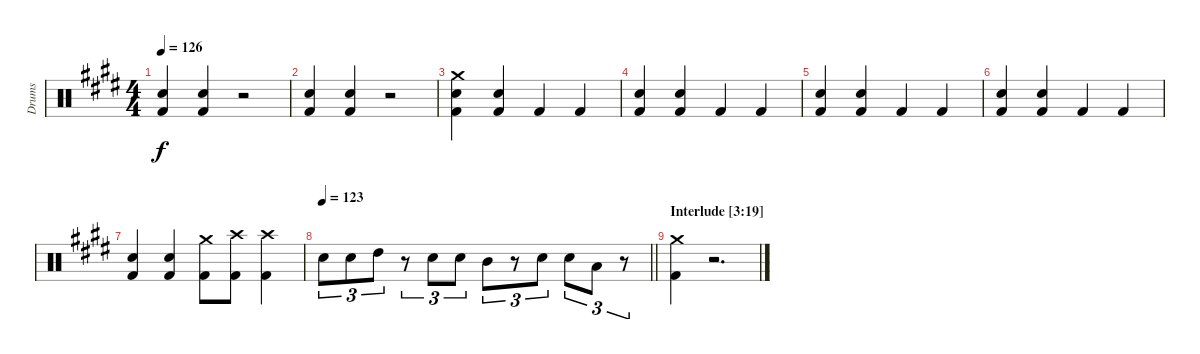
\track ("Drums" "Drums") {instrument percussion}
\staff {score}
\articulation defaults
\ts (4 4)
\tempo 126
\clef neutral
\ks c#minor
("Snare (hit) 2" "Kick (hit) 2").4{dy f} ("Snare (hit) 2" "Kick (hit) 2").4 r.2 |
("Snare (hit) 2" "Kick (hit) 2").4 ("Snare (hit) 2" "Kick (hit) 2").4 r.2 |
("Crash medium (hit)" "Snare (hit) 2" "Kick (hit) 2").4 ("Snare (hit) 2" "Kick (hit) 2").4 "Kick (hit) 2".4 "Kick (hit) 2".4 |
("Snare (hit) 2" "Kick (hit) 2").4 ("Snare (hit) 2" "Kick (hit) 2").4 "Kick (hit) 2".4 "Kick (hit) 2".4 |
("Snare (hit) 2" "Kick (hit) 2").4 ("Snare (hit) 2" "Kick (hit) 2").4 "Kick (hit) 2".4 "Kick (hit) 2".4 |
("Snare (hit) 2" "Kick (hit) 2").4 ("Snare (hit) 2" "Kick (hit) 2").4 "Kick (hit) 2".4 "Kick (hit) 2".4 |
("Snare (hit) 2" "Kick (hit) 2").4 ("Snare (hit) 2" "Kick (hit) 2").4 ("Crash medium (hit)" "Kick (hit) 2").8 ("Crash high (hit)" "Kick (hit) 2").8 ("Crash high (hit)" "Kick (hit) 2").4 |
\tempo 123
\barLineRight lightlight "Snare (hit) 2".8{tu (3 2)} "Snare (hit) 2".8{tu (3 2)} "High Tom (hit)".8{tu (3 2)}
r.8{tu (3 2)} "Snare (hit) 2".8{tu (3 2)} "Snare (hit) 2".8{tu (3 2)} "Mid Tom (hit)".8{tu (3 2)} r.8{tu (3 2)} "Snare (hit) 2".8{tu (3 2)} "Snare (hit) 2".8{tu (3 2)} "Low Tom (hit)".8{tu (3 2)} r.8{tu (3 2)} |
\section ("" "Interlude [3:19]")
("Crash medium (hit)" "Kick (hit) 2").4 r.2{d}
